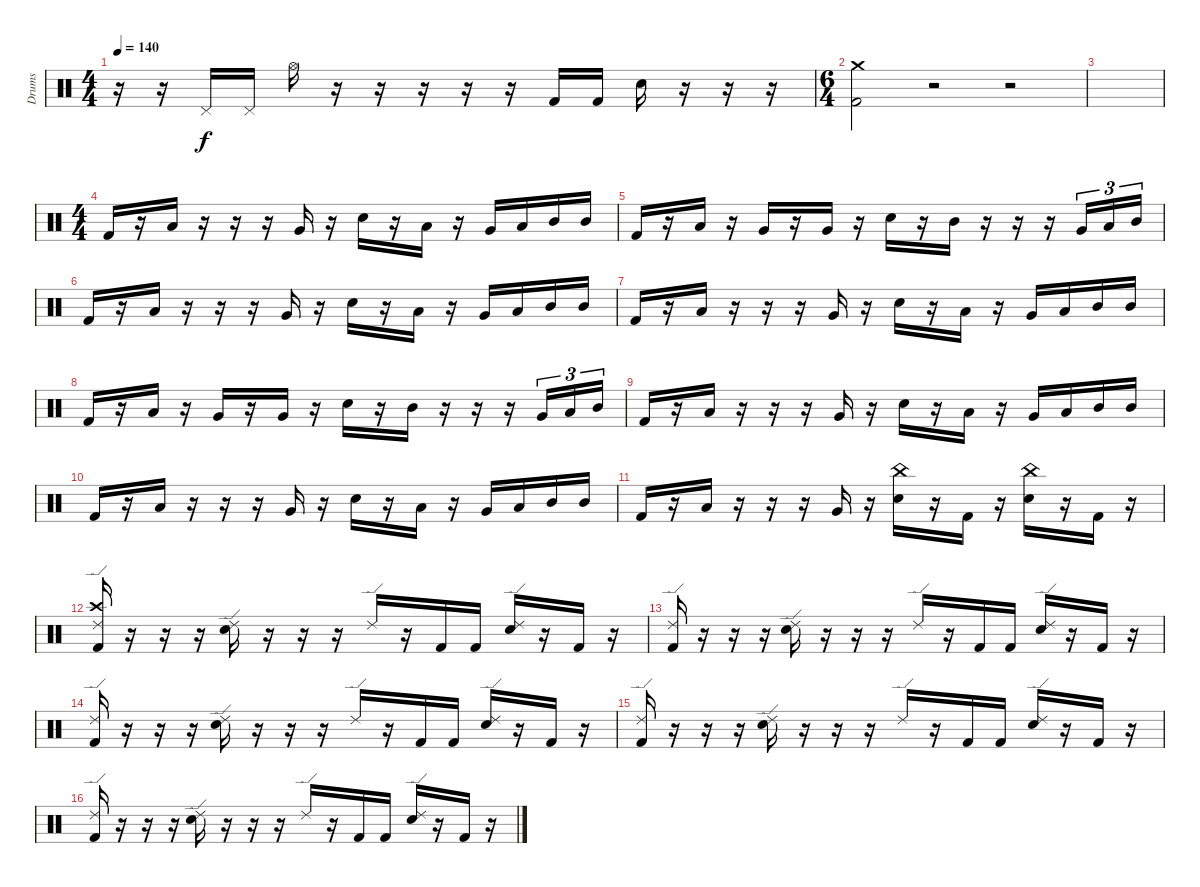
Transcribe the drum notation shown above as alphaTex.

\track ("Drums" "Drums") {instrument percussion}
\staff {score}
\articulation defaults
\ts (4 4)
\tempo 140
\clef neutral
\ks c
r.16{dy f} r.16 "Pedal Hi-Hat (hit)".16 "Pedal Hi-Hat (hit)".16 "Hi-Hat (open)".16 r.16 r.16 r.16 r.16 r.16 "Kick (hit) 2".16 "Kick (hit) 2".16 "Electric Snare (hit)".16 r.16 r.16 r.16 |
\ts (6 4)
("Crash medium (hit)" "Kick (hit) 2").2 r.2 r.2 |
|
\ts (4 4)
"Kick (hit) 2".16 r.16 "Low Tom (hit)".16 r.16 r.16 r.16 "Very Low Tom (hit)".16 r.16 "Electric Snare (hit)".16 r.16 "Low Tom (hit)".16 r.16 "Very Low Tom (hit)".16 "Low Tom (hit)".16 "Mid Tom (hit)".16 "Mid Tom (hit)".16 |
"Kick (hit) 2".16 r.16 "Low Tom (hit)".16 r.16 "Very Low Tom (hit)".16 r.16 "Very Low Tom (hit)".16 r.16 "Electric Snare (hit)".16 r.16 "Mid Tom (hit)".16 r.16 r.16 r.16 "Very Low Tom (hit)".16{tu (3 2)} "Low Tom (hit)".16{tu (3 2)} "Mid Tom (hit)".16{tu (3 2)} |
"Kick (hit) 2".16 r.16 "Low Tom (hit)".16 r.16 r.16 r.16 "Very Low Tom (hit)".16 r.16 "Electric Snare (hit)".16 r.16 "Low Tom (hit)".16 r.16 "Very Low Tom (hit)".16 "Low Tom (hit)".16 "Mid Tom (hit)".16 "Mid Tom (hit)".16 |
"Kick (hit) 2".16 r.16 "Low Tom (hit)".16 r.16 r.16 r.16 "Very Low Tom (hit)".16 r.16 "Electric Snare (hit)".16 r.16 "Low Tom (hit)".16 r.16 "Very Low Tom (hit)".16 "Low Tom (hit)".16 "Mid Tom (hit)".16 "Mid Tom (hit)".16 |
"Kick (hit) 2".16 r.16 "Low Tom (hit)".16 r.16 "Very Low Tom (hit)".16 r.16 "Very Low Tom (hit)".16 r.16 "Electric Snare (hit)".16 r.16 "Mid Tom (hit)".16 r.16 r.16 r.16 "Very Low Tom (hit)".16{tu (3 2)} "Low Tom (hit)".16{tu (3 2)} "Mid Tom (hit)".16{tu (3 2)} |
"Kick (hit) 2".16 r.16 "Low Tom (hit)".16 r.16 r.16 r.16 "Very Low Tom (hit)".16 r.16 "Electric Snare (hit)".16 r.16 "Low Tom (hit)".16 r.16 "Very Low Tom (hit)".16 "Low Tom (hit)".16 "Mid Tom (hit)".16 "Mid Tom (hit)".16 |
"Kick (hit) 2".16 r.16 "Low Tom (hit)".16 r.16 r.16 r.16 "Very Low Tom (hit)".16 r.16 "Electric Snare (hit)".16 r.16 "Low Tom (hit)".16 r.16 "Very Low Tom (hit)".16 "Low Tom (hit)".16 "Mid Tom (hit)".16 "Mid Tom (hit)".16 |
"Kick (hit) 2".16 r.16 "Low Tom (hit)".16 r.16 r.16 r.16 "Very Low Tom (hit)".16 r.16 ("China (hit)" "Electric Snare (hit)").16 r.16 "Kick (hit) 2".16 r.16 ("China (hit)" "Electric Snare (hit)").16 r.16 "Kick (hit) 2".16 r.16 |
("Crash high (hit)" "Ride (edge) 2" "Kick (hit) 2").16 r.16 r.16 r.16 ("Ride (edge) 2" "Electric Snare (hit)").16 r.16 r.16 r.16 "Ride (edge) 2".16 r.16 "Kick (hit) 2".16 "Kick (hit) 2".16 ("Ride (edge) 2" "Electric Snare (hit)").16 r.16 "Kick (hit) 2".16 r.16 |
("Ride (edge) 2" "Kick (hit) 2").16 r.16 r.16 r.16 ("Ride (edge) 2" "Electric Snare (hit)").16 r.16 r.16 r.16 "Ride (edge) 2".16 r.16 "Kick (hit) 2".16 "Kick (hit) 2".16 ("Ride (edge) 2" "Electric Snare (hit)").16 r.16 "Kick (hit) 2".16 r.16 |
("Ride (edge) 2" "Kick (hit) 2").16 r.16 r.16 r.16 ("Ride (edge) 2" "Electric Snare (hit)").16 r.16 r.16 r.16 "Ride (edge) 2".16 r.16 "Kick (hit) 2".16 "Kick (hit) 2".16 ("Ride (edge) 2" "Electric Snare (hit)").16 r.16 "Kick (hit) 2".16 r.16 |
("Ride (edge) 2" "Kick (hit) 2").16 r.16 r.16 r.16 ("Ride (edge) 2" "Electric Snare (hit)").16 r.16 r.16 r.16 "Ride (edge) 2".16 r.16 "Kick (hit) 2".16 "Kick (hit) 2".16 ("Ride (edge) 2" "Electric Snare (hit)").16 r.16 "Kick (hit) 2".16 r.16 |
("Ride (edge) 2" "Kick (hit) 2").16 r.16 r.16 r.16 ("Ride (edge) 2" "Electric Snare (hit)").16 r.16 r.16 r.16 "Ride (edge) 2".16 r.16 "Kick (hit) 2".16 "Kick (hit) 2".16 ("Ride (edge) 2" "Electric Snare (hit)").16 r.16 "Kick (hit) 2".16 r.16
